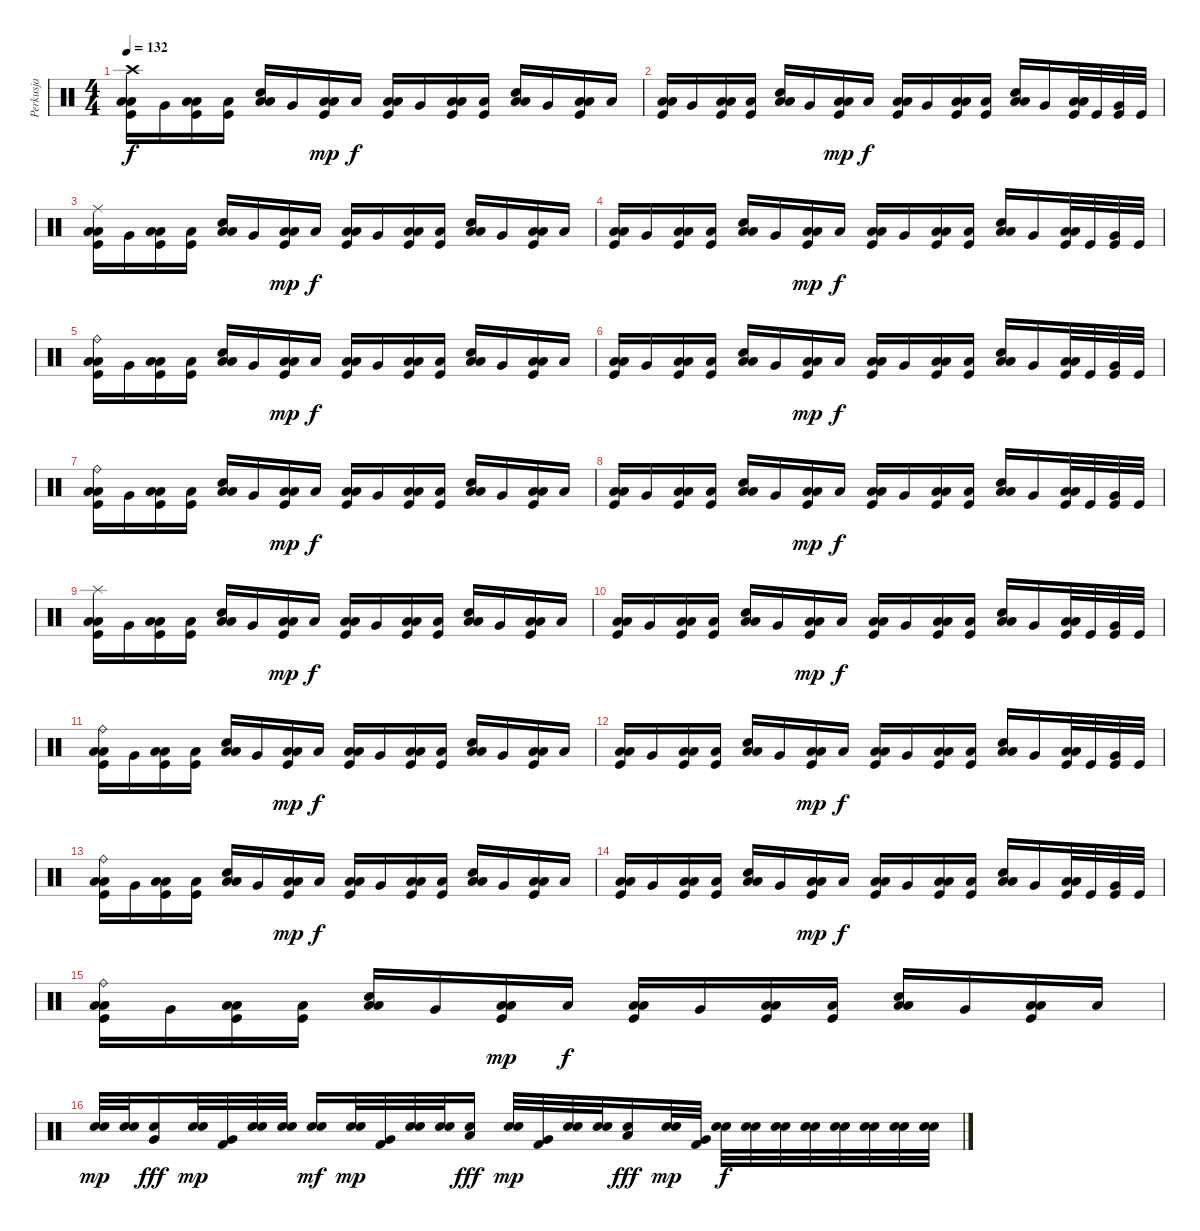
\track ("Perkusja" "Perkusja") {instrument percussion}
\staff {score}
\articulation defaults
\ts (4 4)
\tempo 132
\clef neutral
\ks c
("Crash high (hit)" "Low Floor Tom (hit)" "Low Floor Tom (hit)" "Kick (hit)").16{dy f} "Very Low Tom (hit)".16 ("Low Floor Tom (hit)" "Low Floor Tom (hit)" "Kick (hit)").16 ("Low Tom (hit)" "Kick (hit)").16 ("Low Floor Tom (hit)" "Low Floor Tom (hit)" "Electric Snare (hit)").16 "Very Low Tom (hit)".16 ("Low Floor Tom (hit)" "Low Floor Tom (hit)" "Kick (hit)").16{dy mp} "Low Tom (hit)".16{dy f} ("Low Floor Tom (hit)" "Low Floor Tom (hit)" "Kick (hit)").16 "Very Low Tom (hit)".16 ("Low Floor Tom (hit)" "Low Floor Tom (hit)" "Kick (hit)").16 ("Low Tom (hit)" "Kick (hit)").16 ("Low Floor Tom (hit)" "Low Floor Tom (hit)" "Electric Snare (hit)").16 "Very Low Tom (hit)".16 ("Low Floor Tom (hit)" "Low Floor Tom (hit)" "Kick (hit)").16 "Low Tom (hit)".16 |
("Low Floor Tom (hit)" "Low Floor Tom (hit)" "Kick (hit)").16 "Very Low Tom (hit)".16 ("Low Floor Tom (hit)" "Low Floor Tom (hit)" "Kick (hit)").16 ("Low Tom (hit)" "Kick (hit)").16 ("Low Floor Tom (hit)" "Low Floor Tom (hit)" "Electric Snare (hit)").16 "Very Low Tom (hit)".16 ("Low Floor Tom (hit)" "Low Floor Tom (hit)" "Kick (hit)").16{dy mp} "Low Tom (hit)".16{dy f} ("Low Floor Tom (hit)" "Low Floor Tom (hit)" "Kick (hit)").16 "Very Low Tom (hit)".16 ("Low Floor Tom (hit)" "Low Floor Tom (hit)" "Kick (hit)").16 ("Low Tom (hit)" "Kick (hit)").16 ("Low Floor Tom (hit)" "Low Floor Tom (hit)" "Electric Snare (hit)").16 "Very Low Tom (hit)".16 ("Low Floor Tom (hit)" "Low Floor Tom (hit)" "Kick (hit)").32 "Kick (hit)".32 ("Very Low Tom (hit)" "Kick (hit)").32 "Kick (hit)".32 |
("Ride (middle)" "Low Floor Tom (hit)" "Low Floor Tom (hit)" "Kick (hit)").16 "Very Low Tom (hit)".16 ("Low Floor Tom (hit)" "Low Floor Tom (hit)" "Kick (hit)").16 ("Low Tom (hit)" "Kick (hit)").16 ("Low Floor Tom (hit)" "Low Floor Tom (hit)" "Electric Snare (hit)").16 "Very Low Tom (hit)".16 ("Low Floor Tom (hit)" "Low Floor Tom (hit)" "Kick (hit)").16{dy mp} "Low Tom (hit)".16{dy f} ("Low Floor Tom (hit)" "Low Floor Tom (hit)" "Kick (hit)").16 "Very Low Tom (hit)".16 ("Low Floor Tom (hit)" "Low Floor Tom (hit)" "Kick (hit)").16 ("Low Tom (hit)" "Kick (hit)").16 ("Low Floor Tom (hit)" "Low Floor Tom (hit)" "Electric Snare (hit)").16 "Very Low Tom (hit)".16 ("Low Floor Tom (hit)" "Low Floor Tom (hit)" "Kick (hit)").16 "Low Tom (hit)".16 |
("Low Floor Tom (hit)" "Low Floor Tom (hit)" "Kick (hit)").16 "Very Low Tom (hit)".16 ("Low Floor Tom (hit)" "Low Floor Tom (hit)" "Kick (hit)").16 ("Low Tom (hit)" "Kick (hit)").16 ("Low Floor Tom (hit)" "Low Floor Tom (hit)" "Electric Snare (hit)").16 "Very Low Tom (hit)".16 ("Low Floor Tom (hit)" "Low Floor Tom (hit)" "Kick (hit)").16{dy mp} "Low Tom (hit)".16{dy f} ("Low Floor Tom (hit)" "Low Floor Tom (hit)" "Kick (hit)").16 "Very Low Tom (hit)".16 ("Low Floor Tom (hit)" "Low Floor Tom (hit)" "Kick (hit)").16 ("Low Tom (hit)" "Kick (hit)").16 ("Low Floor Tom (hit)" "Low Floor Tom (hit)" "Electric Snare (hit)").16 "Very Low Tom (hit)".16 ("Low Floor Tom (hit)" "Low Floor Tom (hit)" "Kick (hit)").32 "Kick (hit)".32 ("Very Low Tom (hit)" "Kick (hit)").32 "Kick (hit)".32 |
("Ride (bell)" "Low Floor Tom (hit)" "Low Floor Tom (hit)" "Kick (hit)").16 "Very Low Tom (hit)".16 ("Low Floor Tom (hit)" "Low Floor Tom (hit)" "Kick (hit)").16 ("Low Tom (hit)" "Kick (hit)").16 ("Low Floor Tom (hit)" "Low Floor Tom (hit)" "Electric Snare (hit)").16 "Very Low Tom (hit)".16 ("Low Floor Tom (hit)" "Low Floor Tom (hit)" "Kick (hit)").16{dy mp} "Low Tom (hit)".16{dy f} ("Low Floor Tom (hit)" "Low Floor Tom (hit)" "Kick (hit)").16 "Very Low Tom (hit)".16 ("Low Floor Tom (hit)" "Low Floor Tom (hit)" "Kick (hit)").16 ("Low Tom (hit)" "Kick (hit)").16 ("Low Floor Tom (hit)" "Low Floor Tom (hit)" "Electric Snare (hit)").16 "Very Low Tom (hit)".16 ("Low Floor Tom (hit)" "Low Floor Tom (hit)" "Kick (hit)").16 "Low Tom (hit)".16 |
("Low Floor Tom (hit)" "Low Floor Tom (hit)" "Kick (hit)").16 "Very Low Tom (hit)".16 ("Low Floor Tom (hit)" "Low Floor Tom (hit)" "Kick (hit)").16 ("Low Tom (hit)" "Kick (hit)").16 ("Low Floor Tom (hit)" "Low Floor Tom (hit)" "Electric Snare (hit)").16 "Very Low Tom (hit)".16 ("Low Floor Tom (hit)" "Low Floor Tom (hit)" "Kick (hit)").16{dy mp} "Low Tom (hit)".16{dy f} ("Low Floor Tom (hit)" "Low Floor Tom (hit)" "Kick (hit)").16 "Very Low Tom (hit)".16 ("Low Floor Tom (hit)" "Low Floor Tom (hit)" "Kick (hit)").16 ("Low Tom (hit)" "Kick (hit)").16 ("Low Floor Tom (hit)" "Low Floor Tom (hit)" "Electric Snare (hit)").16 "Very Low Tom (hit)".16 ("Low Floor Tom (hit)" "Low Floor Tom (hit)" "Kick (hit)").32 "Kick (hit)".32 ("Very Low Tom (hit)" "Kick (hit)").32 "Kick (hit)".32 |
("Ride (bell)" "Low Floor Tom (hit)" "Low Floor Tom (hit)" "Kick (hit)").16 "Very Low Tom (hit)".16 ("Low Floor Tom (hit)" "Low Floor Tom (hit)" "Kick (hit)").16 ("Low Tom (hit)" "Kick (hit)").16 ("Low Floor Tom (hit)" "Low Floor Tom (hit)" "Electric Snare (hit)").16 "Very Low Tom (hit)".16 ("Low Floor Tom (hit)" "Low Floor Tom (hit)" "Kick (hit)").16{dy mp} "Low Tom (hit)".16{dy f} ("Low Floor Tom (hit)" "Low Floor Tom (hit)" "Kick (hit)").16 "Very Low Tom (hit)".16 ("Low Floor Tom (hit)" "Low Floor Tom (hit)" "Kick (hit)").16 ("Low Tom (hit)" "Kick (hit)").16 ("Low Floor Tom (hit)" "Low Floor Tom (hit)" "Electric Snare (hit)").16 "Very Low Tom (hit)".16 ("Low Floor Tom (hit)" "Low Floor Tom (hit)" "Kick (hit)").16 "Low Tom (hit)".16 |
("Low Floor Tom (hit)" "Low Floor Tom (hit)" "Kick (hit)").16 "Very Low Tom (hit)".16 ("Low Floor Tom (hit)" "Low Floor Tom (hit)" "Kick (hit)").16 ("Low Tom (hit)" "Kick (hit)").16 ("Low Floor Tom (hit)" "Low Floor Tom (hit)" "Electric Snare (hit)").16 "Very Low Tom (hit)".16 ("Low Floor Tom (hit)" "Low Floor Tom (hit)" "Kick (hit)").16{dy mp} "Low Tom (hit)".16{dy f} ("Low Floor Tom (hit)" "Low Floor Tom (hit)" "Kick (hit)").16 "Very Low Tom (hit)".16 ("Low Floor Tom (hit)" "Low Floor Tom (hit)" "Kick (hit)").16 ("Low Tom (hit)" "Kick (hit)").16 ("Low Floor Tom (hit)" "Low Floor Tom (hit)" "Electric Snare (hit)").16 "Very Low Tom (hit)".16 ("Low Floor Tom (hit)" "Low Floor Tom (hit)" "Kick (hit)").32 "Kick (hit)".32 ("Very Low Tom (hit)" "Kick (hit)").32 "Kick (hit)".32 |
("Splash (hit)" "Low Floor Tom (hit)" "Low Floor Tom (hit)" "Kick (hit)").16 "Very Low Tom (hit)".16 ("Low Floor Tom (hit)" "Low Floor Tom (hit)" "Kick (hit)").16 ("Low Tom (hit)" "Kick (hit)").16 ("Low Floor Tom (hit)" "Low Floor Tom (hit)" "Electric Snare (hit)").16 "Very Low Tom (hit)".16 ("Low Floor Tom (hit)" "Low Floor Tom (hit)" "Kick (hit)").16{dy mp} "Low Tom (hit)".16{dy f} ("Low Floor Tom (hit)" "Low Floor Tom (hit)" "Kick (hit)").16 "Very Low Tom (hit)".16 ("Low Floor Tom (hit)" "Low Floor Tom (hit)" "Kick (hit)").16 ("Low Tom (hit)" "Kick (hit)").16 ("Low Floor Tom (hit)" "Low Floor Tom (hit)" "Electric Snare (hit)").16 "Very Low Tom (hit)".16 ("Low Floor Tom (hit)" "Low Floor Tom (hit)" "Kick (hit)").16 "Low Tom (hit)".16 |
("Low Floor Tom (hit)" "Low Floor Tom (hit)" "Kick (hit)").16 "Very Low Tom (hit)".16 ("Low Floor Tom (hit)" "Low Floor Tom (hit)" "Kick (hit)").16 ("Low Tom (hit)" "Kick (hit)").16 ("Low Floor Tom (hit)" "Low Floor Tom (hit)" "Electric Snare (hit)").16 "Very Low Tom (hit)".16 ("Low Floor Tom (hit)" "Low Floor Tom (hit)" "Kick (hit)").16{dy mp} "Low Tom (hit)".16{dy f} ("Low Floor Tom (hit)" "Low Floor Tom (hit)" "Kick (hit)").16 "Very Low Tom (hit)".16 ("Low Floor Tom (hit)" "Low Floor Tom (hit)" "Kick (hit)").16 ("Low Tom (hit)" "Kick (hit)").16 ("Low Floor Tom (hit)" "Low Floor Tom (hit)" "Electric Snare (hit)").16 "Very Low Tom (hit)".16 ("Low Floor Tom (hit)" "Low Floor Tom (hit)" "Kick (hit)").32 "Kick (hit)".32 ("Very Low Tom (hit)" "Kick (hit)").32 "Kick (hit)".32 |
("Ride (bell)" "Low Floor Tom (hit)" "Low Floor Tom (hit)" "Kick (hit)").16 "Very Low Tom (hit)".16 ("Low Floor Tom (hit)" "Low Floor Tom (hit)" "Kick (hit)").16 ("Low Tom (hit)" "Kick (hit)").16 ("Low Floor Tom (hit)" "Low Floor Tom (hit)" "Electric Snare (hit)").16 "Very Low Tom (hit)".16 ("Low Floor Tom (hit)" "Low Floor Tom (hit)" "Kick (hit)").16{dy mp} "Low Tom (hit)".16{dy f} ("Low Floor Tom (hit)" "Low Floor Tom (hit)" "Kick (hit)").16 "Very Low Tom (hit)".16 ("Low Floor Tom (hit)" "Low Floor Tom (hit)" "Kick (hit)").16 ("Low Tom (hit)" "Kick (hit)").16 ("Low Floor Tom (hit)" "Low Floor Tom (hit)" "Electric Snare (hit)").16 "Very Low Tom (hit)".16 ("Low Floor Tom (hit)" "Low Floor Tom (hit)" "Kick (hit)").16 "Low Tom (hit)".16 |
("Low Floor Tom (hit)" "Low Floor Tom (hit)" "Kick (hit)").16 "Very Low Tom (hit)".16 ("Low Floor Tom (hit)" "Low Floor Tom (hit)" "Kick (hit)").16 ("Low Tom (hit)" "Kick (hit)").16 ("Low Floor Tom (hit)" "Low Floor Tom (hit)" "Electric Snare (hit)").16 "Very Low Tom (hit)".16 ("Low Floor Tom (hit)" "Low Floor Tom (hit)" "Kick (hit)").16{dy mp} "Low Tom (hit)".16{dy f} ("Low Floor Tom (hit)" "Low Floor Tom (hit)" "Kick (hit)").16 "Very Low Tom (hit)".16 ("Low Floor Tom (hit)" "Low Floor Tom (hit)" "Kick (hit)").16 ("Low Tom (hit)" "Kick (hit)").16 ("Low Floor Tom (hit)" "Low Floor Tom (hit)" "Electric Snare (hit)").16 "Very Low Tom (hit)".16 ("Low Floor Tom (hit)" "Low Floor Tom (hit)" "Kick (hit)").32 "Kick (hit)".32 ("Very Low Tom (hit)" "Kick (hit)").32 "Kick (hit)".32 |
("Ride (bell)" "Low Floor Tom (hit)" "Low Floor Tom (hit)" "Kick (hit)").16 "Very Low Tom (hit)".16 ("Low Floor Tom (hit)" "Low Floor Tom (hit)" "Kick (hit)").16 ("Low Tom (hit)" "Kick (hit)").16 ("Low Floor Tom (hit)" "Low Floor Tom (hit)" "Electric Snare (hit)").16 "Very Low Tom (hit)".16 ("Low Floor Tom (hit)" "Low Floor Tom (hit)" "Kick (hit)").16{dy mp} "Low Tom (hit)".16{dy f} ("Low Floor Tom (hit)" "Low Floor Tom (hit)" "Kick (hit)").16 "Very Low Tom (hit)".16 ("Low Floor Tom (hit)" "Low Floor Tom (hit)" "Kick (hit)").16 ("Low Tom (hit)" "Kick (hit)").16 ("Low Floor Tom (hit)" "Low Floor Tom (hit)" "Electric Snare (hit)").16 "Very Low Tom (hit)".16 ("Low Floor Tom (hit)" "Low Floor Tom (hit)" "Kick (hit)").16 "Low Tom (hit)".16 |
("Low Floor Tom (hit)" "Low Floor Tom (hit)" "Kick (hit)").16 "Very Low Tom (hit)".16 ("Low Floor Tom (hit)" "Low Floor Tom (hit)" "Kick (hit)").16 ("Low Tom (hit)" "Kick (hit)").16 ("Low Floor Tom (hit)" "Low Floor Tom (hit)" "Electric Snare (hit)").16 "Very Low Tom (hit)".16 ("Low Floor Tom (hit)" "Low Floor Tom (hit)" "Kick (hit)").16{dy mp} "Low Tom (hit)".16{dy f} ("Low Floor Tom (hit)" "Low Floor Tom (hit)" "Kick (hit)").16 "Very Low Tom (hit)".16 ("Low Floor Tom (hit)" "Low Floor Tom (hit)" "Kick (hit)").16 ("Low Tom (hit)" "Kick (hit)").16 ("Low Floor Tom (hit)" "Low Floor Tom (hit)" "Electric Snare (hit)").16 "Very Low Tom (hit)".16 ("Low Floor Tom (hit)" "Low Floor Tom (hit)" "Kick (hit)").32 "Kick (hit)".32 ("Very Low Tom (hit)" "Kick (hit)").32 "Kick (hit)".32 |
("Ride (bell)" "Low Floor Tom (hit)" "Low Floor Tom (hit)" "Kick (hit)").16 "Very Low Tom (hit)".16 ("Low Floor Tom (hit)" "Low Floor Tom (hit)" "Kick (hit)").16 ("Low Tom (hit)" "Kick (hit)").16 ("Low Floor Tom (hit)" "Low Floor Tom (hit)" "Electric Snare (hit)").16 "Very Low Tom (hit)".16 ("Low Floor Tom (hit)" "Low Floor Tom (hit)" "Kick (hit)").16{dy mp} "Low Tom (hit)".16{dy f} ("Low Floor Tom (hit)" "Low Floor Tom (hit)" "Kick (hit)").16 "Very Low Tom (hit)".16 ("Low Floor Tom (hit)" "Low Floor Tom (hit)" "Kick (hit)").16 ("Low Tom (hit)" "Kick (hit)").16 ("Low Floor Tom (hit)" "Low Floor Tom (hit)" "Electric Snare (hit)").16 "Very Low Tom (hit)".16 ("Low Floor Tom (hit)" "Low Floor Tom (hit)" "Kick (hit)").16 "Low Tom (hit)".16 |
("Electric Snare (hit)" "Electric Snare (hit)").32{dy mp} ("Electric Snare (hit)" "Electric Snare (hit)").32 ("Very Low Tom (hit)" "Electric Snare (hit)").16{dy fff} ("Electric Snare (hit)" "Electric Snare (hit)").32{dy mp} ("Very Low Tom (hit)" "Kick (hit) 2").32 ("Electric Snare (hit)" "Electric Snare (hit)").32 ("Electric Snare (hit)" "Electric Snare (hit)").32 ("Electric Snare (hit)" "Electric Snare (hit)").16{dy mf} ("Electric Snare (hit)" "Electric Snare (hit)").32{dy mp} ("Very Low Tom (hit)" "Kick (hit) 2").32 ("Electric Snare (hit)" "Electric Snare (hit)").32 ("Electric Snare (hit)" "Electric Snare (hit)").32 ("Low Tom (hit)" "Electric Snare (hit)").16{dy fff} ("Electric Snare (hit)" "Electric Snare (hit)").32{dy mp} ("Very Low Tom (hit)" "Kick (hit) 2").32 ("Electric Snare (hit)" "Electric Snare (hit)").32 ("Electric Snare (hit)" "Electric Snare (hit)").32 ("Low Tom (hit)" "Electric Snare (hit)").16{dy fff} ("Electric Snare (hit)" "Electric Snare (hit)").32{dy mp} ("Very Low Tom (hit)" "Kick (hit) 2").32 ("Electric Snare (hit)" "Electric Snare (hit)").32{dy f} ("Electric Snare (hit)" "Electric Snare (hit)").32 ("Electric Snare (hit)" "Electric Snare (hit)").32 ("Electric Snare (hit)" "Electric Snare (hit)").32 ("Electric Snare (hit)" "Electric Snare (hit)").32 ("Electric Snare (hit)" "Electric Snare (hit)").32 ("Electric Snare (hit)" "Electric Snare (hit)").32 ("Electric Snare (hit)" "Electric Snare (hit)").32
